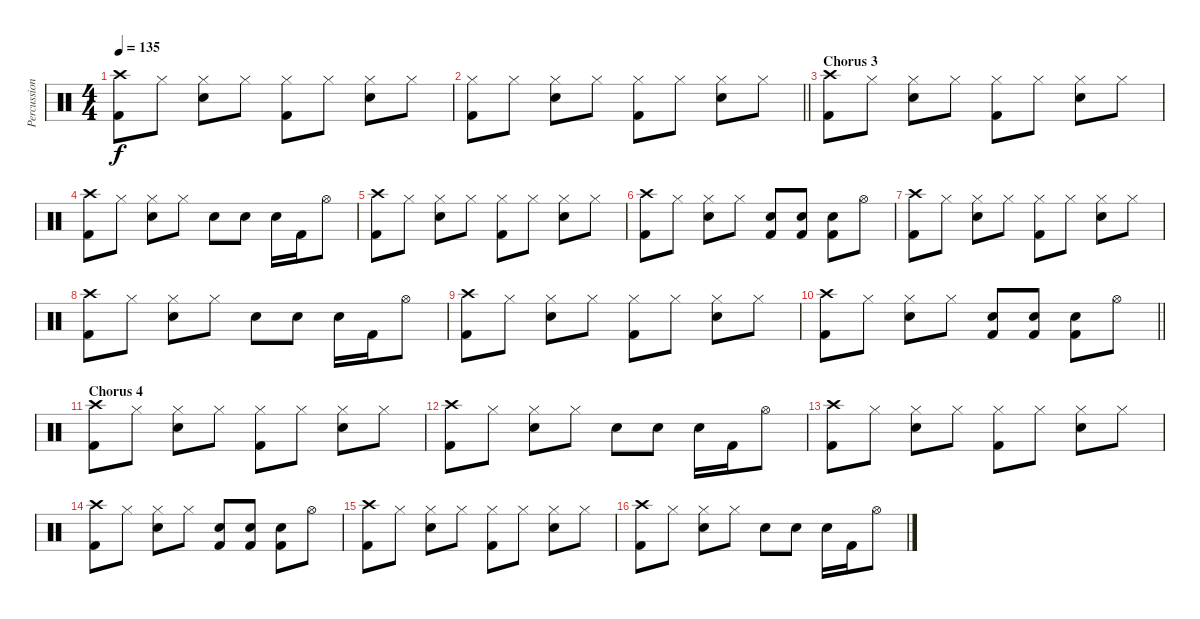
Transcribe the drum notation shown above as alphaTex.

\track ("Percussion" "Percussion") {instrument percussion}
\staff {score}
\articulation defaults
\ts (4 4)
\tempo 135
\clef neutral
\ks c
("Crash high (hit)" "Kick (hit) 2").8{dy f} "Hi-Hat (closed)".8 ("Hi-Hat (closed)" "Electric Snare (hit)").8 "Hi-Hat (closed)".8 ("Hi-Hat (closed)" "Kick (hit) 2").8 "Hi-Hat (closed)".8 ("Hi-Hat (closed)" "Electric Snare (hit)").8 "Hi-Hat (closed)".8 |
\barLineRight lightlight
("Hi-Hat (closed)" "Kick (hit) 2").8 "Hi-Hat (closed)".8 ("Hi-Hat (closed)" "Electric Snare (hit)").8 "Hi-Hat (closed)".8 ("Hi-Hat (closed)" "Kick (hit) 2").8 "Hi-Hat (closed)".8 ("Hi-Hat (closed)" "Electric Snare (hit)").8 "Hi-Hat (closed)".8 |
\section ("" "Chorus 3")
("Crash high (hit)" "Kick (hit) 2").8 "Hi-Hat (closed)".8 ("Hi-Hat (closed)" "Electric Snare (hit)").8 "Hi-Hat (closed)".8 ("Hi-Hat (closed)" "Kick (hit) 2").8 "Hi-Hat (closed)".8 ("Hi-Hat (closed)" "Electric Snare (hit)").8 "Hi-Hat (closed)".8 |
("Crash high (hit)" "Kick (hit) 2").8 "Hi-Hat (closed)".8 ("Hi-Hat (closed)" "Electric Snare (hit)").8 "Hi-Hat (closed)".8 "Electric Snare (hit)".8 "Electric Snare (hit)".8 "Electric Snare (hit)".16 "Kick (hit) 2".16 "Hi-Hat (open)".8 |
("Crash high (hit)" "Kick (hit) 2").8 "Hi-Hat (closed)".8 ("Hi-Hat (closed)" "Electric Snare (hit)").8 "Hi-Hat (closed)".8 ("Hi-Hat (closed)" "Kick (hit) 2").8 "Hi-Hat (closed)".8 ("Hi-Hat (closed)" "Electric Snare (hit)").8 "Hi-Hat (closed)".8 |
("Crash high (hit)" "Kick (hit) 2").8 "Hi-Hat (closed)".8 ("Hi-Hat (closed)" "Electric Snare (hit)").8 "Hi-Hat (closed)".8 ("Electric Snare (hit)" "Kick (hit) 2").8 ("Electric Snare (hit)" "Kick (hit) 2").8 ("Electric Snare (hit)" "Kick (hit) 2").8 "Hi-Hat (open)".8 |
("Crash high (hit)" "Kick (hit) 2").8 "Hi-Hat (closed)".8 ("Hi-Hat (closed)" "Electric Snare (hit)").8 "Hi-Hat (closed)".8 ("Hi-Hat (closed)" "Kick (hit) 2").8 "Hi-Hat (closed)".8 ("Hi-Hat (closed)" "Electric Snare (hit)").8 "Hi-Hat (closed)".8 |
("Crash high (hit)" "Kick (hit) 2").8 "Hi-Hat (closed)".8 ("Hi-Hat (closed)" "Electric Snare (hit)").8 "Hi-Hat (closed)".8 "Electric Snare (hit)".8 "Electric Snare (hit)".8 "Electric Snare (hit)".16 "Kick (hit) 2".16 "Hi-Hat (open)".8 |
("Crash high (hit)" "Kick (hit) 2").8 "Hi-Hat (closed)".8 ("Hi-Hat (closed)" "Electric Snare (hit)").8 "Hi-Hat (closed)".8 ("Hi-Hat (closed)" "Kick (hit) 2").8 "Hi-Hat (closed)".8 ("Hi-Hat (closed)" "Electric Snare (hit)").8 "Hi-Hat (closed)".8 |
\barLineRight lightlight
("Crash high (hit)" "Kick (hit) 2").8 "Hi-Hat (closed)".8 ("Hi-Hat (closed)" "Electric Snare (hit)").8 "Hi-Hat (closed)".8 ("Electric Snare (hit)" "Kick (hit) 2").8 ("Electric Snare (hit)" "Kick (hit) 2").8 ("Electric Snare (hit)" "Kick (hit) 2").8 "Hi-Hat (open)".8 |
\section ("" "Chorus 4")
("Crash high (hit)" "Kick (hit) 2").8 "Hi-Hat (closed)".8 ("Hi-Hat (closed)" "Electric Snare (hit)").8 "Hi-Hat (closed)".8 ("Hi-Hat (closed)" "Kick (hit) 2").8 "Hi-Hat (closed)".8 ("Hi-Hat (closed)" "Electric Snare (hit)").8 "Hi-Hat (closed)".8 |
("Crash high (hit)" "Kick (hit) 2").8 "Hi-Hat (closed)".8 ("Hi-Hat (closed)" "Electric Snare (hit)").8 "Hi-Hat (closed)".8 "Electric Snare (hit)".8 "Electric Snare (hit)".8 "Electric Snare (hit)".16 "Kick (hit) 2".16 "Hi-Hat (open)".8 |
("Crash high (hit)" "Kick (hit) 2").8 "Hi-Hat (closed)".8 ("Hi-Hat (closed)" "Electric Snare (hit)").8 "Hi-Hat (closed)".8 ("Hi-Hat (closed)" "Kick (hit) 2").8 "Hi-Hat (closed)".8 ("Hi-Hat (closed)" "Electric Snare (hit)").8 "Hi-Hat (closed)".8 |
("Crash high (hit)" "Kick (hit) 2").8 "Hi-Hat (closed)".8 ("Hi-Hat (closed)" "Electric Snare (hit)").8 "Hi-Hat (closed)".8 ("Electric Snare (hit)" "Kick (hit) 2").8 ("Electric Snare (hit)" "Kick (hit) 2").8 ("Electric Snare (hit)" "Kick (hit) 2").8 "Hi-Hat (open)".8 |
("Crash high (hit)" "Kick (hit) 2").8 "Hi-Hat (closed)".8 ("Hi-Hat (closed)" "Electric Snare (hit)").8 "Hi-Hat (closed)".8 ("Hi-Hat (closed)" "Kick (hit) 2").8 "Hi-Hat (closed)".8 ("Hi-Hat (closed)" "Electric Snare (hit)").8 "Hi-Hat (closed)".8 |
("Crash high (hit)" "Kick (hit) 2").8 "Hi-Hat (closed)".8 ("Hi-Hat (closed)" "Electric Snare (hit)").8 "Hi-Hat (closed)".8 "Electric Snare (hit)".8 "Electric Snare (hit)".8 "Electric Snare (hit)".16 "Kick (hit) 2".16 "Hi-Hat (open)".8
